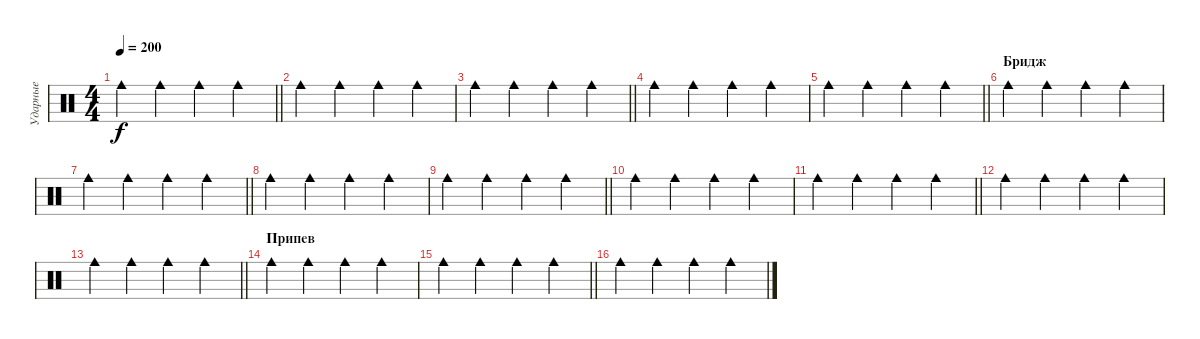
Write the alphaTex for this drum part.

\track ("Ударные" "Ударные") {instrument percussion}
\staff {score}
\articulation defaults
\ts (4 4)
\tempo 200
\clef neutral
\barLineRight lightlight
\ks c "Cowbell medium (hit)".4{dy f} "Cowbell medium (hit)".4 "Cowbell medium (hit)".4 "Cowbell medium (hit)".4
|
"Cowbell medium (hit)".4 "Cowbell medium (hit)".4 "Cowbell medium (hit)".4 "Cowbell medium (hit)".4 |
\barLineRight lightlight "Cowbell medium (hit)".4 "Cowbell medium (hit)".4 "Cowbell medium (hit)".4 "Cowbell medium (hit)".4
|
"Cowbell medium (hit)".4 "Cowbell medium (hit)".4 "Cowbell medium (hit)".4 "Cowbell medium (hit)".4 |
\barLineRight lightlight "Cowbell medium (hit)".4 "Cowbell medium (hit)".4 "Cowbell medium (hit)".4 "Cowbell medium (hit)".4
|
\section ("" "Бридж")
"Cowbell medium (hit)".4 "Cowbell medium (hit)".4 "Cowbell medium (hit)".4 "Cowbell medium (hit)".4 |
\barLineRight lightlight "Cowbell medium (hit)".4 "Cowbell medium (hit)".4 "Cowbell medium (hit)".4 "Cowbell medium (hit)".4
|
"Cowbell medium (hit)".4 "Cowbell medium (hit)".4 "Cowbell medium (hit)".4 "Cowbell medium (hit)".4 |
\barLineRight lightlight "Cowbell medium (hit)".4 "Cowbell medium (hit)".4 "Cowbell medium (hit)".4 "Cowbell medium (hit)".4
|
"Cowbell medium (hit)".4 "Cowbell medium (hit)".4 "Cowbell medium (hit)".4 "Cowbell medium (hit)".4 |
\barLineRight lightlight "Cowbell medium (hit)".4 "Cowbell medium (hit)".4 "Cowbell medium (hit)".4 "Cowbell medium (hit)".4
|
"Cowbell medium (hit)".4 "Cowbell medium (hit)".4 "Cowbell medium (hit)".4 "Cowbell medium (hit)".4 |
\barLineRight lightlight "Cowbell medium (hit)".4 "Cowbell medium (hit)".4 "Cowbell medium (hit)".4 "Cowbell medium (hit)".4
|
\section ("" "Припев")
"Cowbell medium (hit)".4 "Cowbell medium (hit)".4 "Cowbell medium (hit)".4 "Cowbell medium (hit)".4 |
\barLineRight lightlight "Cowbell medium (hit)".4 "Cowbell medium (hit)".4 "Cowbell medium (hit)".4 "Cowbell medium (hit)".4
|
"Cowbell medium (hit)".4 "Cowbell medium (hit)".4 "Cowbell medium (hit)".4 "Cowbell medium (hit)".4
